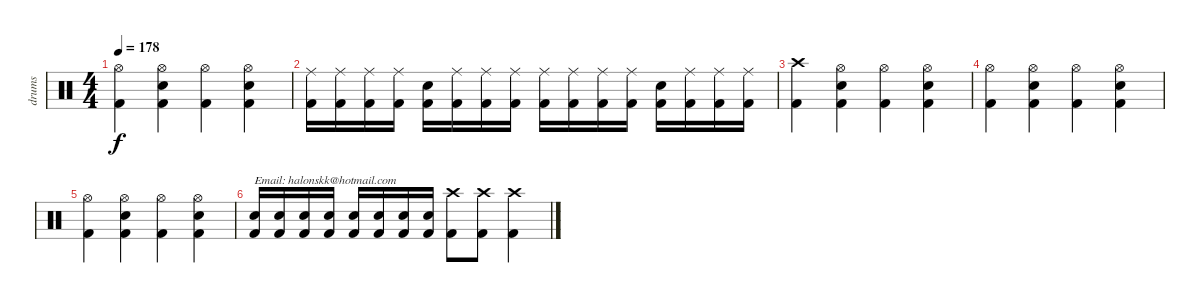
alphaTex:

\track ("drums" "drums") {instrument percussion}
\staff {score}
\articulation defaults
\ts (4 4)
\tempo 178
\clef neutral
\ks c
("Hi-Hat (open)" "Kick (hit) 2").4{dy f} ("Hi-Hat (open)" "Electric Snare (hit)" "Kick (hit) 2").4 ("Hi-Hat (open)" "Kick (hit) 2").4 ("Hi-Hat (open)" "Electric Snare (hit)" "Kick (hit) 2").4 |
("Ride (middle)" "Kick (hit) 2").16 ("Ride (middle)" "Kick (hit) 2").16 ("Ride (middle)" "Kick (hit) 2").16 ("Ride (middle)" "Kick (hit) 2").16 ("Electric Snare (hit)" "Kick (hit) 2").16 ("Ride (middle)" "Kick (hit) 2").16 ("Ride (middle)" "Kick (hit) 2").16 ("Ride (middle)" "Kick (hit) 2").16 ("Ride (middle)" "Kick (hit) 2").16 ("Ride (middle)" "Kick (hit) 2").16 ("Ride (middle)" "Kick (hit) 2").16 ("Ride (middle)" "Kick (hit) 2").16 ("Electric Snare (hit)" "Kick (hit) 2").16 ("Ride (middle)" "Kick (hit) 2").16 ("Ride (middle)" "Kick (hit) 2").16 ("Ride (middle)" "Kick (hit) 2").16 |
("Crash high (hit)" "Kick (hit) 2").4 ("Hi-Hat (open)" "Electric Snare (hit)" "Kick (hit) 2").4 ("Hi-Hat (open)" "Kick (hit) 2").4 ("Hi-Hat (open)" "Electric Snare (hit)" "Kick (hit) 2").4 |
("Hi-Hat (open)" "Kick (hit) 2").4 ("Hi-Hat (open)" "Electric Snare (hit)" "Kick (hit) 2").4 ("Hi-Hat (open)" "Kick (hit) 2").4 ("Hi-Hat (open)" "Electric Snare (hit)" "Kick (hit) 2").4 |
("Hi-Hat (open)" "Kick (hit) 2").4 ("Hi-Hat (open)" "Electric Snare (hit)" "Kick (hit) 2").4 ("Hi-Hat (open)" "Kick (hit) 2").4 ("Hi-Hat (open)" "Electric Snare (hit)" "Kick (hit) 2").4 |
("Electric Snare (hit)" "Kick (hit) 2").16{txt "Email: halonskk@hotmail.com"} ("Electric Snare (hit)" "Kick (hit) 2").16 ("Electric Snare (hit)" "Kick (hit) 2").16 ("Electric Snare (hit)" "Kick (hit) 2").16 ("Electric Snare (hit)" "Kick (hit) 2").16 ("Electric Snare (hit)" "Kick (hit) 2").16 ("Electric Snare (hit)" "Kick (hit) 2").16 ("Electric Snare (hit)" "Kick (hit) 2").16 ("Crash high (hit)" "Kick (hit) 2").8 ("Crash high (hit)" "Kick (hit) 2").8 ("Crash high (hit)" "Kick (hit) 2").4
